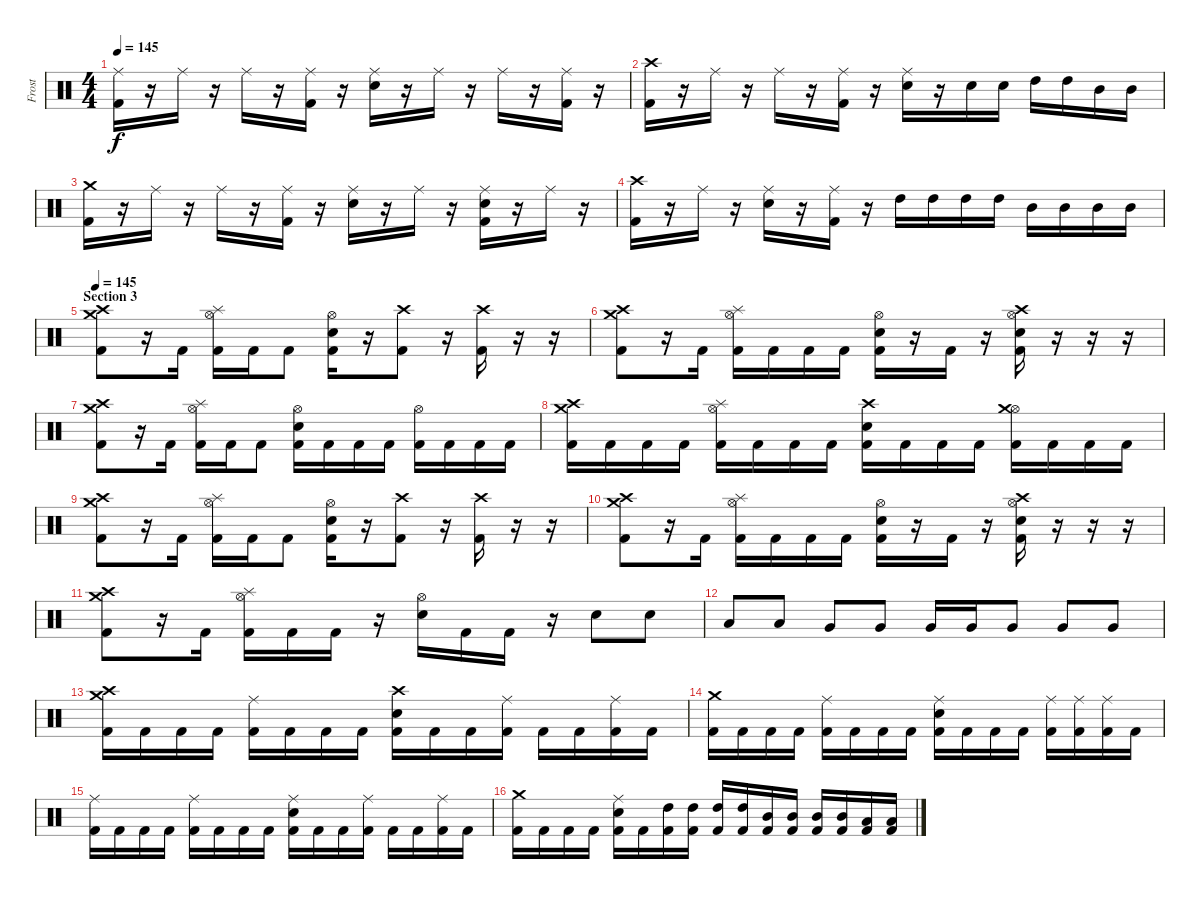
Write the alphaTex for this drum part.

\track ("Frost" "Frost") {instrument percussion}
\staff {score}
\articulation defaults
\ts (4 4)
\tempo 145
\clef neutral
\ks c
("Ride (middle)" "Kick (hit) 2").16{dy f} r.16 "Ride (middle)".16 r.16 "Ride (middle)".16 r.16 ("Ride (middle)" "Kick (hit) 2").16 r.16 ("Ride (middle)" "Electric Snare (hit)").16 r.16 "Ride (middle)".16 r.16 "Ride (middle)".16 r.16 ("Ride (middle)" "Kick (hit) 2").16 r.16 |
("Crash high (hit)" "Kick (hit) 2").16 r.16 "Ride (middle)".16 r.16 "Ride (middle)".16 r.16 ("Ride (middle)" "Kick (hit) 2").16 r.16 ("Ride (middle)" "Electric Snare (hit)").16 r.16 "Electric Snare (hit)".16 "Electric Snare (hit)".16 "High Tom (hit)".16 "High Tom (hit)".16 "Mid Tom (hit)".16 "Mid Tom (hit)".16 |
("Crash medium (hit)" "Kick (hit) 2").16 r.16 "Ride (middle)".16 r.16 "Ride (middle)".16 r.16 ("Ride (middle)" "Kick (hit) 2").16 r.16 ("Ride (middle)" "Electric Snare (hit)").16 r.16 "Ride (middle)".16 r.16 ("Ride (middle)" "Electric Snare (hit)" "Kick (hit) 2").16 r.16 "Ride (middle)".16 r.16 |
("Crash high (hit)" "Kick (hit) 2").16 r.16 "Ride (middle)".16 r.16 ("Ride (middle)" "Electric Snare (hit)").16 r.16 ("Ride (middle)" "Kick (hit) 2").16 r.16 "High Tom (hit)".16 "High Tom (hit)".16 "High Tom (hit)".16 "High Tom (hit)".16 "Mid Tom (hit)".16 "Mid Tom (hit)".16 "Mid Tom (hit)".16 "Mid Tom (hit)".16 |
\section ("" "Section 3")
\tempo 145
("Crash medium (hit)" "Crash high (hit)" "Kick (hit) 2").8 r.16 "Kick (hit) 2".16 ("Hi-Hat (open)" "Splash (hit)" "Kick (hit) 2").16 "Kick (hit) 2".16 "Kick (hit) 2".8 ("Hi-Hat (open)" "Electric Snare (hit)" "Kick (hit) 2").16 r.16 ("Crash high (hit)" "Kick (hit) 2").8 r.16 ("Crash high (hit)" "Kick (hit) 2").16 r.16 r.16 |
("Crash medium (hit)" "Crash high (hit)" "Kick (hit) 2").8 r.16 "Kick (hit) 2".16 ("Hi-Hat (open)" "Splash (hit)" "Kick (hit) 2").16 "Kick (hit) 2".16 "Kick (hit) 2".16 "Kick (hit) 2".16 ("Hi-Hat (open)" "Electric Snare (hit)" "Kick (hit) 2").16 r.16 "Kick (hit) 2".16 r.16 ("Hi-Hat (open)" "Crash high (hit)" "Electric Snare (hit)" "Kick (hit) 2").16 r.16 r.16 r.16 |
("Crash medium (hit)" "Crash high (hit)" "Kick (hit) 2").8 r.16 "Kick (hit) 2".16 ("Hi-Hat (open)" "Splash (hit)" "Kick (hit) 2").16 "Kick (hit) 2".16 "Kick (hit) 2".8 ("Hi-Hat (open)" "Electric Snare (hit)" "Kick (hit) 2").16 "Kick (hit) 2".16 "Kick (hit) 2".16 "Kick (hit) 2".16 ("Hi-Hat (open)" "Kick (hit) 2").16 "Kick (hit) 2".16 "Kick (hit) 2".16 "Kick (hit) 2".16 |
("Crash medium (hit)" "Crash high (hit)" "Kick (hit) 2").16 "Kick (hit) 2".16 "Kick (hit) 2".16 "Kick (hit) 2".16 ("Hi-Hat (open)" "Splash (hit)" "Kick (hit) 2").16 "Kick (hit) 2".16 "Kick (hit) 2".16 "Kick (hit) 2".16 ("Crash high (hit)" "Electric Snare (hit)" "Kick (hit) 2").16 "Kick (hit) 2".16 "Kick (hit) 2".16 "Kick (hit) 2".16 ("Hi-Hat (open)" "Crash medium (hit)" "Kick (hit) 2").16 "Kick (hit) 2".16 "Kick (hit) 2".16 "Kick (hit) 2".16 |
("Crash medium (hit)" "Crash high (hit)" "Kick (hit) 2").8 r.16 "Kick (hit) 2".16 ("Hi-Hat (open)" "Splash (hit)" "Kick (hit) 2").16 "Kick (hit) 2".16 "Kick (hit) 2".8 ("Hi-Hat (open)" "Electric Snare (hit)" "Kick (hit) 2").16 r.16 ("Crash high (hit)" "Kick (hit) 2").8 r.16 ("Crash high (hit)" "Kick (hit) 2").16 r.16 r.16 |
("Crash medium (hit)" "Crash high (hit)" "Kick (hit) 2").8 r.16 "Kick (hit) 2".16 ("Hi-Hat (open)" "Splash (hit)" "Kick (hit) 2").16 "Kick (hit) 2".16 "Kick (hit) 2".16 "Kick (hit) 2".16 ("Hi-Hat (open)" "Electric Snare (hit)" "Kick (hit) 2").16 r.16 "Kick (hit) 2".16 r.16 ("Hi-Hat (open)" "Crash high (hit)" "Electric Snare (hit)" "Kick (hit) 2").16 r.16 r.16 r.16 |
("Crash medium (hit)" "Crash high (hit)" "Kick (hit) 2").8 r.16 "Kick (hit) 2".16 ("Hi-Hat (open)" "Splash (hit)" "Kick (hit) 2").16 "Kick (hit) 2".16 "Kick (hit) 2".16 r.16 ("Hi-Hat (open)" "Electric Snare (hit)").16 "Kick (hit) 2".16 "Kick (hit) 2".16 r.16 "Electric Snare (hit)".8 "Electric Snare (hit)".8 |
"Low Tom (hit)".8 "Low Tom (hit)".8 "Very Low Tom (hit)".8 "Very Low Tom (hit)".8 "Very Low Tom (hit)".16 "Very Low Tom (hit)".16 "Very Low Tom (hit)".8 "Very Low Tom (hit)".8 "Very Low Tom (hit)".8 |
("Crash medium (hit)" "Crash high (hit)" "Kick (hit) 2").16 "Kick (hit) 2".16 "Kick (hit) 2".16 "Kick (hit) 2".16 ("Ride (middle)" "Kick (hit) 2").16 "Kick (hit) 2".16 "Kick (hit) 2".16 "Kick (hit) 2".16 ("Crash high (hit)" "Electric Snare (hit)" "Kick (hit) 2").16 "Kick (hit) 2".16 "Kick (hit) 2".16 ("Ride (middle)" "Kick (hit) 2").16 "Kick (hit) 2".16 "Kick (hit) 2".16 ("Ride (middle)" "Kick (hit) 2").16 "Kick (hit) 2".16 |
("Crash medium (hit)" "Kick (hit) 2").16 "Kick (hit) 2".16 "Kick (hit) 2".16 "Kick (hit) 2".16 ("Ride (middle)" "Kick (hit) 2").16 "Kick (hit) 2".16 "Kick (hit) 2".16 "Kick (hit) 2".16 ("Ride (middle)" "Electric Snare (hit)" "Kick (hit) 2").16 "Kick (hit) 2".16 "Kick (hit) 2".16 "Kick (hit) 2".16 ("Ride (middle)" "Kick (hit) 2").16 ("Ride (middle)" "Kick (hit) 2").16 ("Ride (middle)" "Kick (hit) 2").16 "Kick (hit) 2".16 |
("Ride (middle)" "Kick (hit) 2").16 "Kick (hit) 2".16 "Kick (hit) 2".16 "Kick (hit) 2".16 ("Ride (middle)" "Kick (hit) 2").16 "Kick (hit) 2".16 "Kick (hit) 2".16 "Kick (hit) 2".16 ("Ride (middle)" "Electric Snare (hit)" "Kick (hit) 2").16 "Kick (hit) 2".16 "Kick (hit) 2".16 ("Ride (middle)" "Kick (hit) 2").16 "Kick (hit) 2".16 "Kick (hit) 2".16 ("Ride (middle)" "Kick (hit) 2").16 "Kick (hit) 2".16 |
("Crash medium (hit)" "Kick (hit) 2").16 "Kick (hit) 2".16 "Kick (hit) 2".16 "Kick (hit) 2".16 ("Ride (middle)" "Electric Snare (hit)" "Kick (hit) 2").16 "Kick (hit) 2".16 ("High Tom (hit)" "Kick (hit) 2").16 ("High Tom (hit)" "Kick (hit) 2").16 ("High Tom (hit)" "Kick (hit) 2").16 ("High Tom (hit)" "Kick (hit) 2").16 ("Mid Tom (hit)" "Kick (hit) 2").16 ("Mid Tom (hit)" "Kick (hit) 2").16 ("Mid Tom (hit)" "Kick (hit) 2").16 ("Mid Tom (hit)" "Kick (hit) 2").16 ("Low Tom (hit)" "Kick (hit) 2").16 ("Low Tom (hit)" "Kick (hit) 2").16
